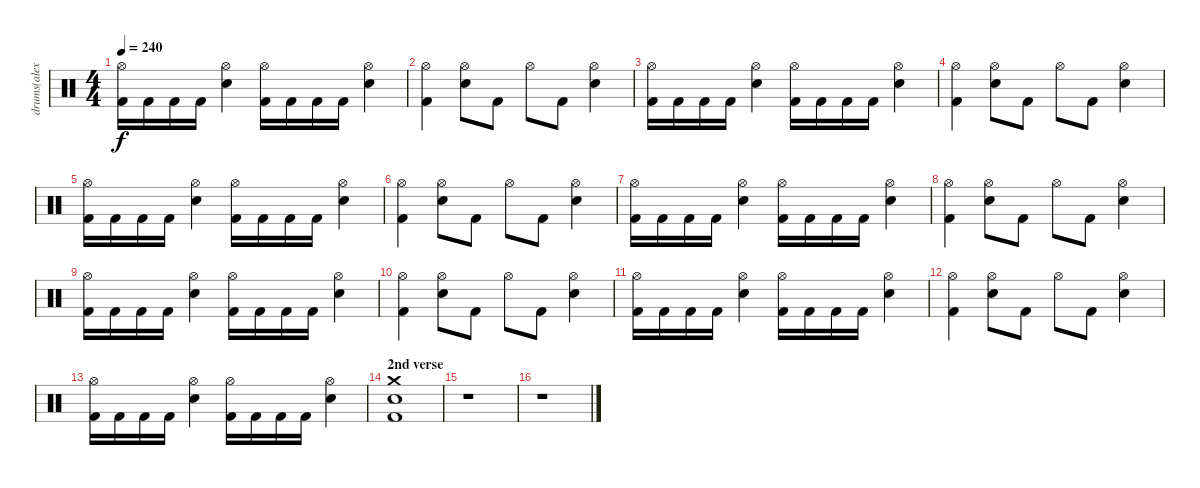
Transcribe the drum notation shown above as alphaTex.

\track ("drums(alex holzshwart)" "drums(alex") {instrument percussion}
\staff {score}
\articulation defaults
\ts (4 4)
\tempo 240
\clef neutral
\ks c
("Hi-Hat (open)" "Kick (hit) 2").16{dy f} "Kick (hit) 2".16 "Kick (hit) 2".16 "Kick (hit) 2".16 ("Hi-Hat (open)" "Electric Snare (hit)").4 ("Hi-Hat (open)" "Kick (hit) 2").16 "Kick (hit) 2".16 "Kick (hit) 2".16 "Kick (hit) 2".16 ("Hi-Hat (open)" "Electric Snare (hit)").4 |
("Hi-Hat (open)" "Kick (hit) 2").4 ("Hi-Hat (open)" "Electric Snare (hit)").8 "Kick (hit) 2".8 "Hi-Hat (open)".8 "Kick (hit) 2".8 ("Hi-Hat (open)" "Electric Snare (hit)").4 |
("Hi-Hat (open)" "Kick (hit) 2").16 "Kick (hit) 2".16 "Kick (hit) 2".16 "Kick (hit) 2".16 ("Hi-Hat (open)" "Electric Snare (hit)").4 ("Hi-Hat (open)" "Kick (hit) 2").16 "Kick (hit) 2".16 "Kick (hit) 2".16 "Kick (hit) 2".16 ("Hi-Hat (open)" "Electric Snare (hit)").4 |
("Hi-Hat (open)" "Kick (hit) 2").4 ("Hi-Hat (open)" "Electric Snare (hit)").8 "Kick (hit) 2".8 "Hi-Hat (open)".8 "Kick (hit) 2".8 ("Hi-Hat (open)" "Electric Snare (hit)").4 |
("Hi-Hat (open)" "Kick (hit) 2").16 "Kick (hit) 2".16 "Kick (hit) 2".16 "Kick (hit) 2".16 ("Hi-Hat (open)" "Electric Snare (hit)").4 ("Hi-Hat (open)" "Kick (hit) 2").16 "Kick (hit) 2".16 "Kick (hit) 2".16 "Kick (hit) 2".16 ("Hi-Hat (open)" "Electric Snare (hit)").4 |
("Hi-Hat (open)" "Kick (hit) 2").4 ("Hi-Hat (open)" "Electric Snare (hit)").8 "Kick (hit) 2".8 "Hi-Hat (open)".8 "Kick (hit) 2".8 ("Hi-Hat (open)" "Electric Snare (hit)").4 |
("Hi-Hat (open)" "Kick (hit) 2").16 "Kick (hit) 2".16 "Kick (hit) 2".16 "Kick (hit) 2".16 ("Hi-Hat (open)" "Electric Snare (hit)").4 ("Hi-Hat (open)" "Kick (hit) 2").16 "Kick (hit) 2".16 "Kick (hit) 2".16 "Kick (hit) 2".16 ("Hi-Hat (open)" "Electric Snare (hit)").4 |
("Hi-Hat (open)" "Kick (hit) 2").4 ("Hi-Hat (open)" "Electric Snare (hit)").8 "Kick (hit) 2".8 "Hi-Hat (open)".8 "Kick (hit) 2".8 ("Hi-Hat (open)" "Electric Snare (hit)").4 |
("Hi-Hat (open)" "Kick (hit) 2").16 "Kick (hit) 2".16 "Kick (hit) 2".16 "Kick (hit) 2".16 ("Hi-Hat (open)" "Electric Snare (hit)").4 ("Hi-Hat (open)" "Kick (hit) 2").16 "Kick (hit) 2".16 "Kick (hit) 2".16 "Kick (hit) 2".16 ("Hi-Hat (open)" "Electric Snare (hit)").4 |
("Hi-Hat (open)" "Kick (hit) 2").4 ("Hi-Hat (open)" "Electric Snare (hit)").8 "Kick (hit) 2".8 "Hi-Hat (open)".8 "Kick (hit) 2".8 ("Hi-Hat (open)" "Electric Snare (hit)").4 |
("Hi-Hat (open)" "Kick (hit) 2").16 "Kick (hit) 2".16 "Kick (hit) 2".16 "Kick (hit) 2".16 ("Hi-Hat (open)" "Electric Snare (hit)").4 ("Hi-Hat (open)" "Kick (hit) 2").16 "Kick (hit) 2".16 "Kick (hit) 2".16 "Kick (hit) 2".16 ("Hi-Hat (open)" "Electric Snare (hit)").4 |
("Hi-Hat (open)" "Kick (hit) 2").4 ("Hi-Hat (open)" "Electric Snare (hit)").8 "Kick (hit) 2".8 "Hi-Hat (open)".8 "Kick (hit) 2".8 ("Hi-Hat (open)" "Electric Snare (hit)").4 |
("Hi-Hat (open)" "Kick (hit) 2").16 "Kick (hit) 2".16 "Kick (hit) 2".16 "Kick (hit) 2".16 ("Hi-Hat (open)" "Electric Snare (hit)").4 ("Hi-Hat (open)" "Kick (hit) 2").16 "Kick (hit) 2".16 "Kick (hit) 2".16 "Kick (hit) 2".16 ("Hi-Hat (open)" "Electric Snare (hit)").4 |
\section ("" "2nd verse")
("Crash medium (hit)" "Electric Snare (hit)" "Kick (hit) 2").1 |
r.1 |
r.1
